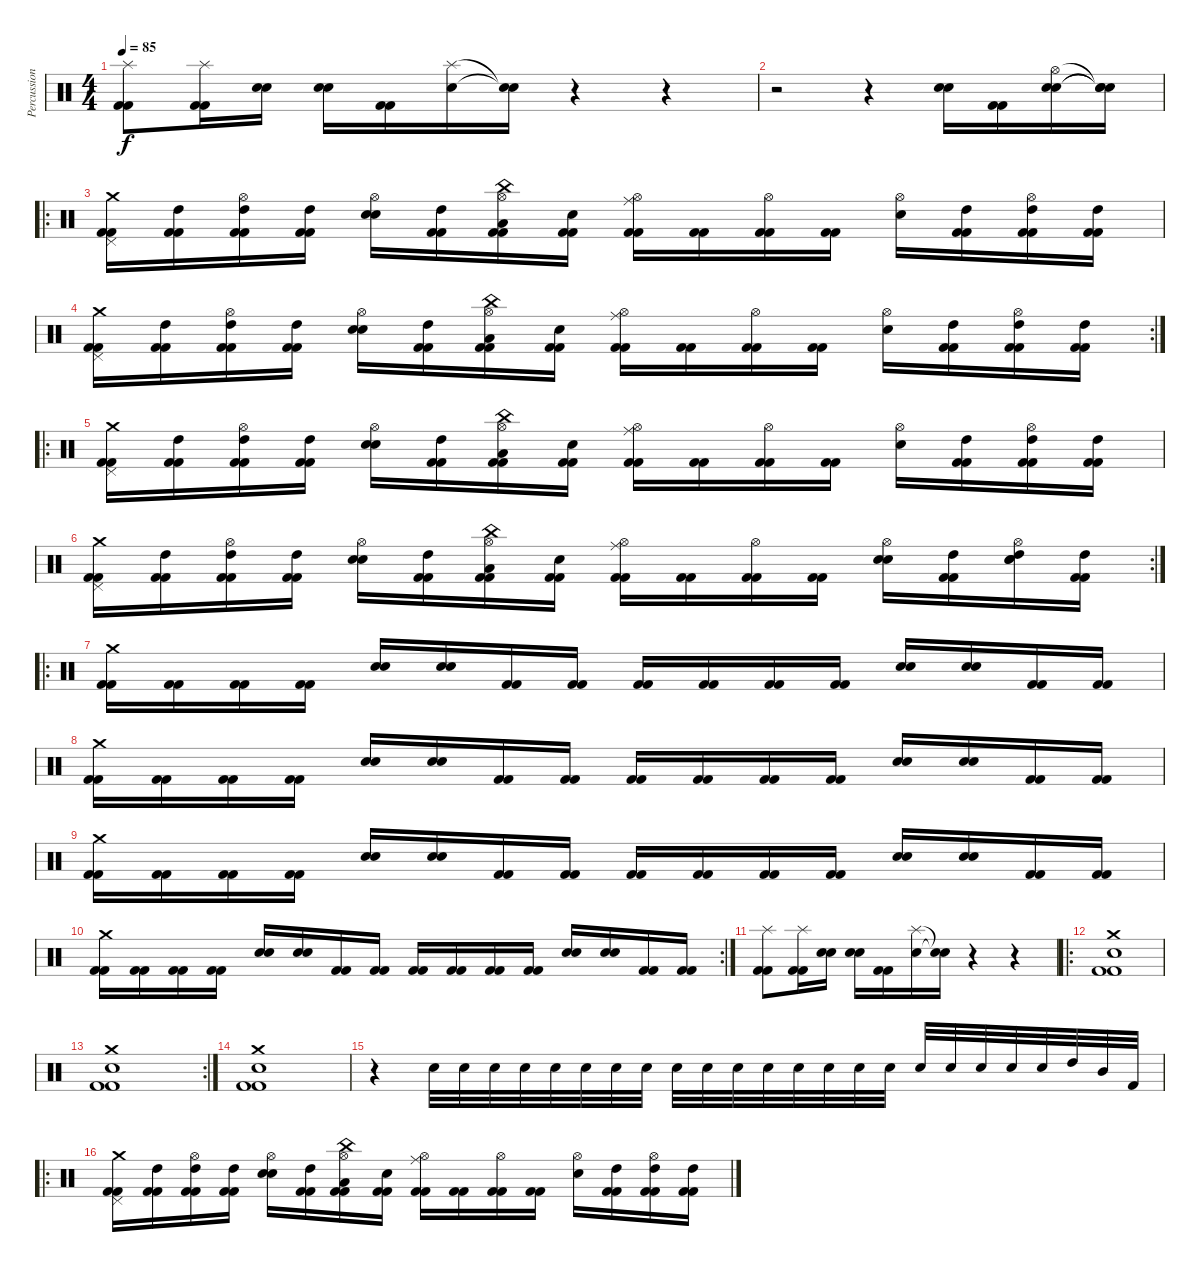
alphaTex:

\track ("Percussion" "Percussion") {instrument percussion}
\staff {score}
\articulation defaults
\ts (4 4)
\tempo 85
\clef neutral
\ks c
("Splash (hit)" "Kick (hit) 2" "Kick (hit) 2").8{dy f} ("Splash (hit)" "Kick (hit) 2" "Kick (hit) 2").16 ("Electric Snare (hit)" "Electric Snare (hit)").16 ("Electric Snare (hit)" "Electric Snare (hit)").16 ("Kick (hit) 2" "Kick (hit) 2").16 ("Splash (hit)" "Electric Snare (hit)").16 ("Snare (hit)"{t} "Snare (hit)"{t}).16 r.4 r.4 |
r.2 r.4 ("Electric Snare (hit)" "Electric Snare (hit)").16 ("Kick (hit) 2" "Kick (hit) 2").16 ("Hi-Hat (open)" "Electric Snare (hit)" "Electric Snare (hit)").16 ("Snare (hit)"{t} "Snare (hit)"{t} "Snare (hit)"{t}).16 |
\ro
("Pedal Hi-Hat (hit)" "Crash medium (hit)" "Kick (hit) 2" "Kick (hit) 2").16 ("High Tom (hit)" "Kick (hit) 2" "Kick (hit) 2").16 ("Hi-Hat (open)" "High Tom (hit)" "Kick (hit) 2" "Kick (hit) 2").16 ("High Tom (hit)" "Kick (hit) 2" "Kick (hit) 2").16 ("Hi-Hat (open)" "Electric Snare (hit)" "Snare (hit)").16 ("High Tom (hit)" "Kick (hit) 2" "Kick (hit) 2").16 ("China (hit)" "Hi-Hat (open)" "Low Tom (hit)" "Kick (hit) 2" "Kick (hit) 2").16 ("Snare (hit)" "Kick (hit) 2" "Kick (hit) 2").16 ("Ride (middle)" "Hi-Hat (open)" "Kick (hit) 2" "Kick (hit) 2").16 ("Kick (hit) 2" "Kick (hit) 2").16 ("Hi-Hat (open)" "Kick (hit) 2" "Kick (hit) 2").16 ("Kick (hit) 2" "Kick (hit) 2").16 ("Hi-Hat (open)" "Electric Snare (hit)").16 ("High Tom (hit)" "Kick (hit) 2" "Kick (hit) 2").16 ("Hi-Hat (open)" "High Tom (hit)" "Kick (hit) 2" "Kick (hit) 2").16 ("High Tom (hit)" "Kick (hit) 2" "Kick (hit) 2").16 |
\rc 2
("Pedal Hi-Hat (hit)" "Crash medium (hit)" "Kick (hit) 2" "Kick (hit) 2").16 ("High Tom (hit)" "Kick (hit) 2" "Kick (hit) 2").16 ("Hi-Hat (open)" "High Tom (hit)" "Kick (hit) 2" "Kick (hit) 2").16 ("High Tom (hit)" "Kick (hit) 2" "Kick (hit) 2").16 ("Hi-Hat (open)" "Electric Snare (hit)" "Snare (hit)").16 ("High Tom (hit)" "Kick (hit) 2" "Kick (hit) 2").16 ("China (hit)" "Hi-Hat (open)" "Low Tom (hit)" "Kick (hit) 2" "Kick (hit) 2").16 ("Snare (hit)" "Kick (hit) 2" "Kick (hit) 2").16 ("Ride (middle)" "Hi-Hat (open)" "Kick (hit) 2" "Kick (hit) 2").16 ("Kick (hit) 2" "Kick (hit) 2").16 ("Hi-Hat (open)" "Kick (hit) 2" "Kick (hit) 2").16 ("Kick (hit) 2" "Kick (hit) 2").16 ("Hi-Hat (open)" "Electric Snare (hit)").16 ("High Tom (hit)" "Kick (hit) 2" "Kick (hit) 2").16 ("Hi-Hat (open)" "High Tom (hit)" "Kick (hit) 2" "Kick (hit) 2").16 ("High Tom (hit)" "Kick (hit) 2" "Kick (hit) 2").16 |
\ro
("Pedal Hi-Hat (hit)" "Crash medium (hit)" "Kick (hit) 2" "Kick (hit) 2").16 ("High Tom (hit)" "Kick (hit) 2" "Kick (hit) 2").16 ("Hi-Hat (open)" "High Tom (hit)" "Kick (hit) 2" "Kick (hit) 2").16 ("High Tom (hit)" "Kick (hit) 2" "Kick (hit) 2").16 ("Hi-Hat (open)" "Electric Snare (hit)" "Snare (hit)").16 ("High Tom (hit)" "Kick (hit) 2" "Kick (hit) 2").16 ("China (hit)" "Hi-Hat (open)" "Low Tom (hit)" "Kick (hit) 2" "Kick (hit) 2").16 ("Snare (hit)" "Kick (hit) 2" "Kick (hit) 2").16 ("Ride (middle)" "Hi-Hat (open)" "Kick (hit) 2" "Kick (hit) 2").16 ("Kick (hit) 2" "Kick (hit) 2").16 ("Hi-Hat (open)" "Kick (hit) 2" "Kick (hit) 2").16 ("Kick (hit) 2" "Kick (hit) 2").16 ("Hi-Hat (open)" "Electric Snare (hit)").16 ("High Tom (hit)" "Kick (hit) 2" "Kick (hit) 2").16 ("Hi-Hat (open)" "High Tom (hit)" "Kick (hit) 2" "Kick (hit) 2").16 ("High Tom (hit)" "Kick (hit) 2" "Kick (hit) 2").16 |
\rc 2
("Pedal Hi-Hat (hit)" "Crash medium (hit)" "Kick (hit) 2" "Kick (hit) 2").16 ("High Tom (hit)" "Kick (hit) 2" "Kick (hit) 2").16 ("Hi-Hat (open)" "High Tom (hit)" "Kick (hit) 2" "Kick (hit) 2").16 ("High Tom (hit)" "Kick (hit) 2" "Kick (hit) 2").16 ("Hi-Hat (open)" "Electric Snare (hit)" "Snare (hit)").16 ("High Tom (hit)" "Kick (hit) 2" "Kick (hit) 2").16 ("China (hit)" "Hi-Hat (open)" "Low Tom (hit)" "Kick (hit) 2" "Kick (hit) 2").16 ("Snare (hit)" "Kick (hit) 2" "Kick (hit) 2").16 ("Ride (middle)" "Hi-Hat (open)" "Kick (hit) 2" "Kick (hit) 2").16 ("Kick (hit) 2" "Kick (hit) 2").16 ("Hi-Hat (open)" "Kick (hit) 2" "Kick (hit) 2").16 ("Kick (hit) 2" "Kick (hit) 2").16 ("Hi-Hat (open)" "Electric Snare (hit)" "Electric Snare (hit)").16 ("High Tom (hit)" "Kick (hit) 2" "Kick (hit) 2").16 ("Hi-Hat (open)" "High Tom (hit)" "Electric Snare (hit)" "Electric Snare (hit)").16 ("High Tom (hit)" "Kick (hit) 2" "Kick (hit) 2").16 |
\ro
("Crash medium (hit)" "Kick (hit) 2" "Kick (hit) 2").16 ("Kick (hit) 2" "Kick (hit) 2").16 ("Kick (hit) 2" "Kick (hit) 2").16 ("Kick (hit) 2" "Kick (hit) 2").16 ("Electric Snare (hit)" "Electric Snare (hit)").16 ("Electric Snare (hit)" "Electric Snare (hit)").16 ("Kick (hit) 2" "Kick (hit) 2").16 ("Kick (hit) 2" "Kick (hit) 2").16 ("Kick (hit) 2" "Kick (hit) 2").16 ("Kick (hit) 2" "Kick (hit) 2").16 ("Kick (hit) 2" "Kick (hit) 2").16 ("Kick (hit) 2" "Kick (hit) 2").16 ("Electric Snare (hit)" "Electric Snare (hit)").16 ("Electric Snare (hit)" "Electric Snare (hit)").16 ("Kick (hit) 2" "Kick (hit) 2").16 ("Kick (hit) 2" "Kick (hit) 2").16 |
("Crash medium (hit)" "Kick (hit) 2" "Kick (hit) 2").16 ("Kick (hit) 2" "Kick (hit) 2").16 ("Kick (hit) 2" "Kick (hit) 2").16 ("Kick (hit) 2" "Kick (hit) 2").16 ("Electric Snare (hit)" "Electric Snare (hit)").16 ("Electric Snare (hit)" "Electric Snare (hit)").16 ("Kick (hit) 2" "Kick (hit) 2").16 ("Kick (hit) 2" "Kick (hit) 2").16 ("Kick (hit) 2" "Kick (hit) 2").16 ("Kick (hit) 2" "Kick (hit) 2").16 ("Kick (hit) 2" "Kick (hit) 2").16 ("Kick (hit) 2" "Kick (hit) 2").16 ("Electric Snare (hit)" "Electric Snare (hit)").16 ("Electric Snare (hit)" "Electric Snare (hit)").16 ("Kick (hit) 2" "Kick (hit) 2").16 ("Kick (hit) 2" "Kick (hit) 2").16 |
("Crash medium (hit)" "Kick (hit) 2" "Kick (hit) 2").16 ("Kick (hit) 2" "Kick (hit) 2").16 ("Kick (hit) 2" "Kick (hit) 2").16 ("Kick (hit) 2" "Kick (hit) 2").16 ("Electric Snare (hit)" "Electric Snare (hit)").16 ("Electric Snare (hit)" "Electric Snare (hit)").16 ("Kick (hit) 2" "Kick (hit) 2").16 ("Kick (hit) 2" "Kick (hit) 2").16 ("Kick (hit) 2" "Kick (hit) 2").16 ("Kick (hit) 2" "Kick (hit) 2").16 ("Kick (hit) 2" "Kick (hit) 2").16 ("Kick (hit) 2" "Kick (hit) 2").16 ("Snare (hit) 2" "Snare (hit) 2").16 ("Electric Snare (hit)" "Electric Snare (hit)").16 ("Kick (hit) 2" "Kick (hit) 2").16 ("Kick (hit) 2" "Kick (hit) 2").16 |
\rc 2
("Crash medium (hit)" "Kick (hit) 2" "Kick (hit) 2").16 ("Kick (hit) 2" "Kick (hit) 2").16 ("Kick (hit) 2" "Kick (hit) 2").16 ("Kick (hit) 2" "Kick (hit) 2").16 ("Electric Snare (hit)" "Electric Snare (hit)").16 ("Electric Snare (hit)" "Electric Snare (hit)").16 ("Kick (hit) 2" "Kick (hit) 2").16 ("Kick (hit) 2" "Kick (hit) 2").16 ("Kick (hit) 2" "Kick (hit) 2").16 ("Kick (hit) 2" "Kick (hit) 2").16 ("Kick (hit) 2" "Kick (hit) 2").16 ("Kick (hit) 2" "Kick (hit) 2").16 ("Electric Snare (hit)" "Electric Snare (hit)").16 ("Electric Snare (hit)" "Electric Snare (hit)").16 ("Kick (hit) 2" "Kick (hit) 2").16 ("Kick (hit) 2" "Kick (hit) 2").16 |
("Splash (hit)" "Kick (hit) 2" "Kick (hit) 2").8 ("Splash (hit)" "Kick (hit) 2" "Kick (hit) 2").16 ("Electric Snare (hit)" "Electric Snare (hit)").16 ("Electric Snare (hit)" "Electric Snare (hit)").16 ("Kick (hit) 2" "Kick (hit) 2").16 ("Splash (hit)" "Electric Snare (hit)").16 ("Snare (hit)"{t} "Snare (hit)"{t}).16 r.4 r.4 |
\ro
("Crash medium (hit)" "Electric Snare (hit)" "Kick (hit) 2" "Kick (hit) 2").1 |
\rc 2
("Crash medium (hit)" "Electric Snare (hit)" "Kick (hit) 2" "Kick (hit) 2").1 |
("Crash medium (hit)" "Electric Snare (hit)" "Kick (hit) 2" "Kick (hit) 2").1 |
r.4 "Electric Snare (hit)".32 "Electric Snare (hit)".32 "Electric Snare (hit)".32 "Electric Snare (hit)".32 "Electric Snare (hit)".32 "Electric Snare (hit)".32 "Electric Snare (hit)".32 "Electric Snare (hit)".32 "Electric Snare (hit)".32 "Electric Snare (hit)".32 "Electric Snare (hit)".32 "Electric Snare (hit)".32 "Electric Snare (hit)".32 "Electric Snare (hit)".32 "Electric Snare (hit)".32 "Electric Snare (hit)".32 "Electric Snare (hit)".32 "Electric Snare (hit)".32 "Electric Snare (hit)".32 "Electric Snare (hit)".32 "Electric Snare (hit)".32 "High Tom (hit)".32 "Mid Tom (hit)".32 "Kick (hit) 2".32 |
\ro
("Pedal Hi-Hat (hit)" "Crash medium (hit)" "Kick (hit) 2" "Kick (hit) 2").16 ("High Tom (hit)" "Kick (hit) 2" "Kick (hit) 2").16 ("Hi-Hat (open)" "High Tom (hit)" "Kick (hit) 2" "Kick (hit) 2").16 ("High Tom (hit)" "Kick (hit) 2" "Kick (hit) 2").16 ("Hi-Hat (open)" "Electric Snare (hit)" "Snare (hit)").16 ("High Tom (hit)" "Kick (hit) 2" "Kick (hit) 2").16 ("China (hit)" "Hi-Hat (open)" "Low Tom (hit)" "Kick (hit) 2" "Kick (hit) 2").16 ("Snare (hit)" "Kick (hit) 2" "Kick (hit) 2").16 ("Ride (middle)" "Hi-Hat (open)" "Kick (hit) 2" "Kick (hit) 2").16 ("Kick (hit) 2" "Kick (hit) 2").16 ("Hi-Hat (open)" "Kick (hit) 2" "Kick (hit) 2").16 ("Kick (hit) 2" "Kick (hit) 2").16 ("Hi-Hat (open)" "Electric Snare (hit)").16 ("High Tom (hit)" "Kick (hit) 2" "Kick (hit) 2").16 ("Hi-Hat (open)" "High Tom (hit)" "Kick (hit) 2" "Kick (hit) 2").16 ("High Tom (hit)" "Kick (hit) 2" "Kick (hit) 2").16
